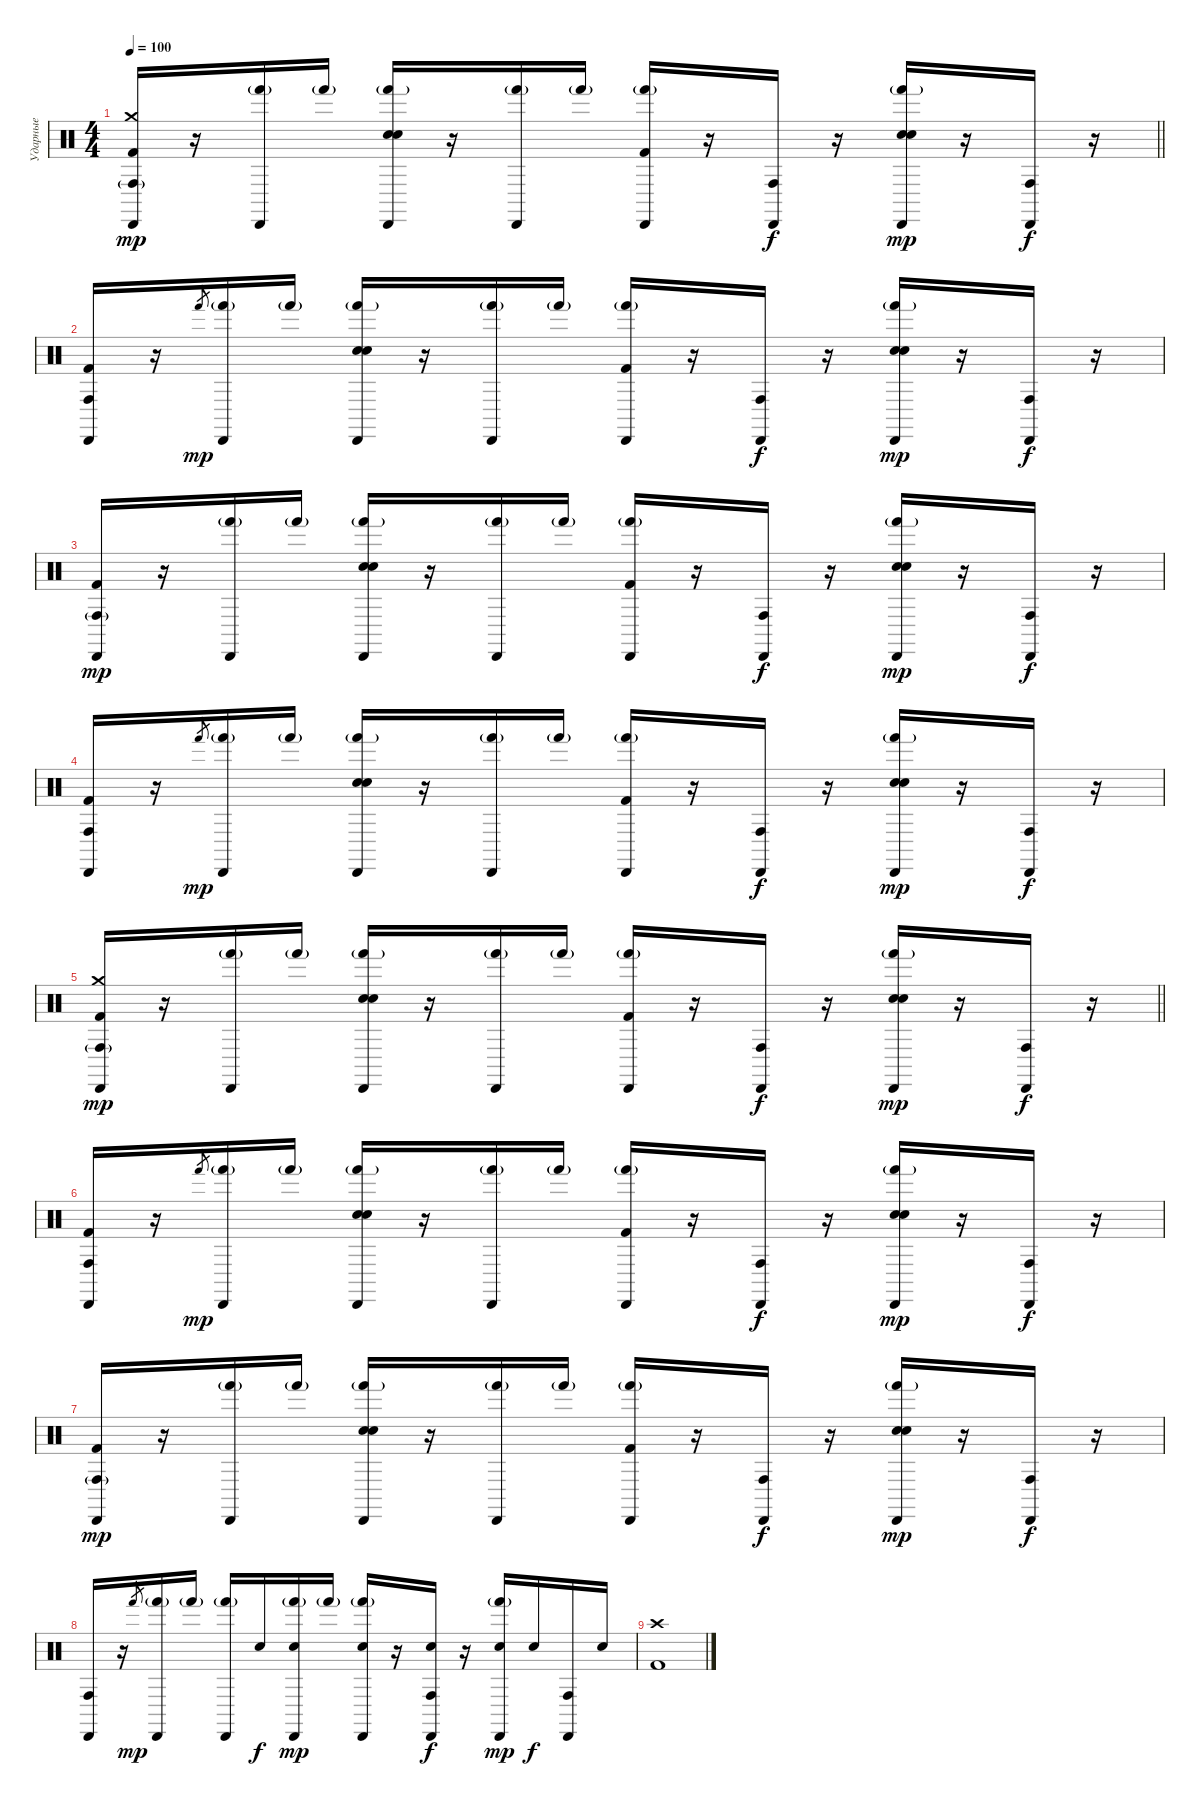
\track ("Ударные" "Ударные") {instrument percussion}
\staff {score}
\articulation defaults
\ts (4 4)
\tempo 100
\clef neutral
\barLineRight lightlight
\ks c
("Crash medium (hit)" "Kick (hit) 2" "Conga high (hit)"{g} "Cabasa (hit)").16{dy mp} r.16 ("Hand (hit)"{g} "Cabasa (hit)").16 "Hand (hit)"{g}.16 ("Hand Clap (hit)" "Snare (hit) 2" "Hand (hit)"{g} "Cabasa (hit)").16 r.16 ("Hand (hit)"{g} "Cabasa (hit)").16 "Hand (hit)"{g}.16 ("Kick (hit) 2" "Hand (hit)"{g} "Cabasa (hit)").16 r.16 ("Conga high (hit)" "Cabasa (hit)").16{dy f} r.16 ("Hand Clap (hit)" "Snare (hit) 2" "Hand (hit)"{g} "Cabasa (hit)").16{dy mp} r.16 ("Conga high (hit)" "Cabasa (hit)").16{dy f} r.16 |
("Kick (hit) 2" "Conga high (hit)" "Cabasa (hit)").16 r.16 "Hand (hit)".8{gr dy mp} ("Hand (hit)"{g} "Cabasa (hit)").16 "Hand (hit)"{g}.16 ("Hand Clap (hit)" "Snare (hit) 2" "Hand (hit)"{g} "Cabasa (hit)").16 r.16 ("Hand (hit)"{g} "Cabasa (hit)").16 "Hand (hit)"{g}.16 ("Kick (hit) 2" "Hand (hit)"{g} "Cabasa (hit)").16 r.16 ("Conga high (hit)" "Cabasa (hit)").16{dy f} r.16 ("Hand Clap (hit)" "Snare (hit) 2" "Hand (hit)"{g} "Cabasa (hit)").16{dy mp} r.16 ("Conga high (hit)" "Cabasa (hit)").16{dy f} r.16 |
("Kick (hit) 2" "Conga high (hit)"{g} "Cabasa (hit)").16{dy mp} r.16 ("Hand (hit)"{g} "Cabasa (hit)").16 "Hand (hit)"{g}.16 ("Hand Clap (hit)" "Snare (hit) 2" "Hand (hit)"{g} "Cabasa (hit)").16 r.16 ("Hand (hit)"{g} "Cabasa (hit)").16 "Hand (hit)"{g}.16 ("Kick (hit) 2" "Hand (hit)"{g} "Cabasa (hit)").16 r.16 ("Conga high (hit)" "Cabasa (hit)").16{dy f} r.16 ("Hand Clap (hit)" "Snare (hit) 2" "Hand (hit)"{g} "Cabasa (hit)").16{dy mp} r.16 ("Conga high (hit)" "Cabasa (hit)").16{dy f} r.16 |
("Kick (hit) 2" "Conga high (hit)" "Cabasa (hit)").16 r.16 "Hand (hit)".8{gr dy mp} ("Hand (hit)"{g} "Cabasa (hit)").16 "Hand (hit)"{g}.16 ("Hand Clap (hit)" "Snare (hit) 2" "Hand (hit)"{g} "Cabasa (hit)").16 r.16 ("Hand (hit)"{g} "Cabasa (hit)").16 "Hand (hit)"{g}.16 ("Kick (hit) 2" "Hand (hit)"{g} "Cabasa (hit)").16 r.16 ("Conga high (hit)" "Cabasa (hit)").16{dy f} r.16 ("Hand Clap (hit)" "Snare (hit) 2" "Hand (hit)"{g} "Cabasa (hit)").16{dy mp} r.16 ("Conga high (hit)" "Cabasa (hit)").16{dy f} r.16 |
\barLineRight lightlight
("Crash medium (hit)" "Kick (hit) 2" "Conga high (hit)"{g} "Cabasa (hit)").16{dy mp} r.16 ("Hand (hit)"{g} "Cabasa (hit)").16 "Hand (hit)"{g}.16 ("Hand Clap (hit)" "Snare (hit) 2" "Hand (hit)"{g} "Cabasa (hit)").16 r.16 ("Hand (hit)"{g} "Cabasa (hit)").16 "Hand (hit)"{g}.16 ("Kick (hit) 2" "Hand (hit)"{g} "Cabasa (hit)").16 r.16 ("Conga high (hit)" "Cabasa (hit)").16{dy f} r.16 ("Hand Clap (hit)" "Snare (hit) 2" "Hand (hit)"{g} "Cabasa (hit)").16{dy mp} r.16 ("Conga high (hit)" "Cabasa (hit)").16{dy f} r.16 |
("Kick (hit) 2" "Conga high (hit)" "Cabasa (hit)").16 r.16 "Hand (hit)".8{gr dy mp} ("Hand (hit)"{g} "Cabasa (hit)").16 "Hand (hit)"{g}.16 ("Hand Clap (hit)" "Snare (hit) 2" "Hand (hit)"{g} "Cabasa (hit)").16 r.16 ("Hand (hit)"{g} "Cabasa (hit)").16 "Hand (hit)"{g}.16 ("Kick (hit) 2" "Hand (hit)"{g} "Cabasa (hit)").16 r.16 ("Conga high (hit)" "Cabasa (hit)").16{dy f} r.16 ("Hand Clap (hit)" "Snare (hit) 2" "Hand (hit)"{g} "Cabasa (hit)").16{dy mp} r.16 ("Conga high (hit)" "Cabasa (hit)").16{dy f} r.16 |
("Kick (hit) 2" "Conga high (hit)"{g} "Cabasa (hit)").16{dy mp} r.16 ("Hand (hit)"{g} "Cabasa (hit)").16 "Hand (hit)"{g}.16 ("Hand Clap (hit)" "Snare (hit) 2" "Hand (hit)"{g} "Cabasa (hit)").16 r.16 ("Hand (hit)"{g} "Cabasa (hit)").16 "Hand (hit)"{g}.16 ("Kick (hit) 2" "Hand (hit)"{g} "Cabasa (hit)").16 r.16 ("Conga high (hit)" "Cabasa (hit)").16{dy f} r.16 ("Hand Clap (hit)" "Snare (hit) 2" "Hand (hit)"{g} "Cabasa (hit)").16{dy mp} r.16 ("Conga high (hit)" "Cabasa (hit)").16{dy f} r.16 |
("Conga high (hit)" "Cabasa (hit)").16 r.16 "Hand (hit)".8{gr dy mp} ("Hand (hit)"{g} "Cabasa (hit)").16 "Hand (hit)"{g}.16 ("Hand (hit)"{g} "Cabasa (hit)").16 "Snare (hit) 2".16{dy f} ("Snare (hit) 2" "Hand (hit)"{g} "Cabasa (hit)").16{dy mp} "Hand (hit)"{g}.16 ("Snare (hit) 2" "Hand (hit)"{g} "Cabasa (hit)").16 r.16 ("Snare (hit) 2" "Conga high (hit)" "Cabasa (hit)").16{dy f} r.16 ("Snare (hit) 2" "Hand (hit)"{g} "Cabasa (hit)").16{dy mp} "Snare (hit) 2".16{dy f} ("Conga high (hit)" "Cabasa (hit)").16 "Snare (hit) 2".16 |
("Crash high (hit)" "Kick (hit) 2").1
